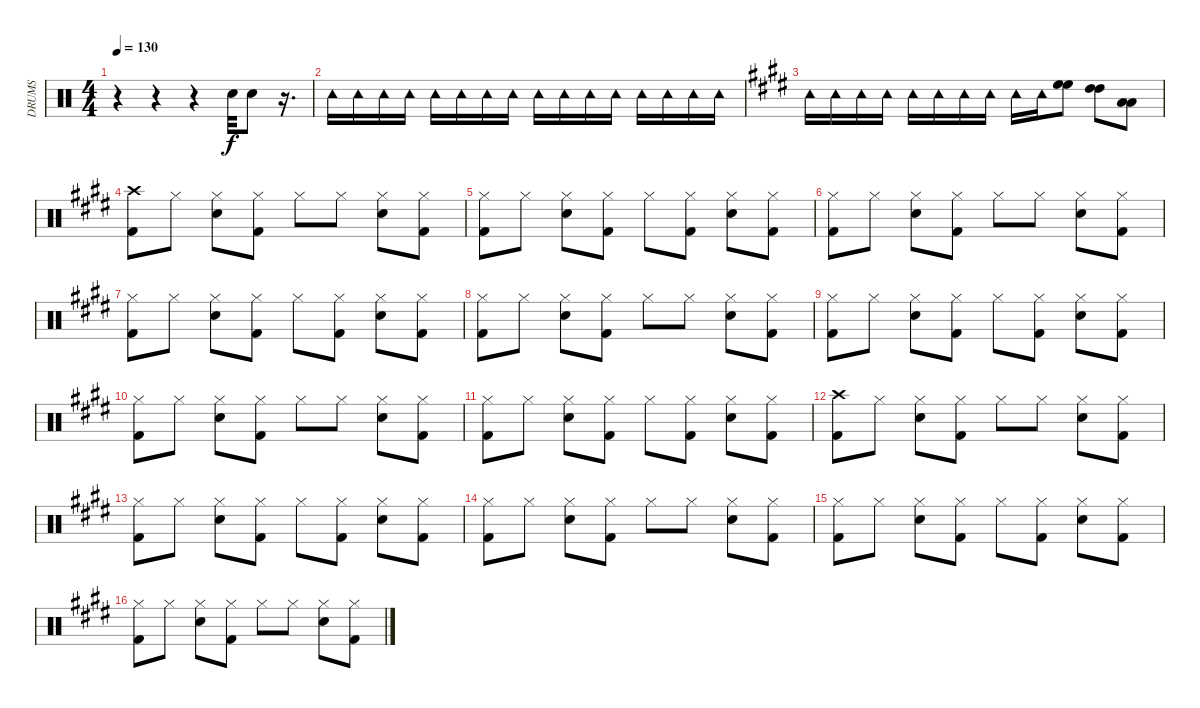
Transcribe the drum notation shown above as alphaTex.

\track ("DRUMS" "DRUMS") {instrument percussion}
\staff {score}
\articulation defaults
\ts (4 4)
\tempo 130
\clef neutral
\ks c
r.4{dy f} r.4 r.4 "Electric Snare (hit)".32 "Electric Snare (hit)".8 r.16{d} |
"Tambourine (hit)".16 "Tambourine (hit)".16 "Tambourine (hit)".16 "Tambourine (hit)".16 "Tambourine (hit)".16 "Tambourine (hit)".16 "Tambourine (hit)".16 "Tambourine (hit)".16 "Tambourine (hit)".16 "Tambourine (hit)".16 "Tambourine (hit)".16 "Tambourine (hit)".16 "Tambourine (hit)".16 "Tambourine (hit)".16 "Tambourine (hit)".16 "Tambourine (hit)".16 |
\ks c#minor "Tambourine (hit)".16 "Tambourine (hit)".16 "Tambourine (hit)".16 "Tambourine (hit)".16 "Tambourine (hit)".16 "Tambourine (hit)".16 "Tambourine (hit)".16 "Tambourine (hit)".16 "Tambourine (hit)".16 "Tambourine (hit)".16
("High Floor Tom (hit)" "High Floor Tom (hit)").8{balance 0} ("High Tom (hit)" "High Tom (hit)").8{balance 8} ("Low Floor Tom (hit)" "Low Floor Tom (hit)").8{balance 16} |
("Crash high (hit)" "Kick (hit) 2").8{balance 8} "Hi-Hat (closed)".8 ("Hi-Hat (closed)" "Snare (hit) 2").8 ("Hi-Hat (closed)" "Kick (hit) 2").8 "Hi-Hat (closed)".8 "Hi-Hat (closed)".8 ("Hi-Hat (closed)" "Snare (hit) 2").8 ("Hi-Hat (closed)" "Kick (hit) 2").8 |
("Hi-Hat (closed)" "Kick (hit) 2").8 "Hi-Hat (closed)".8 ("Hi-Hat (closed)" "Snare (hit) 2").8 ("Hi-Hat (closed)" "Kick (hit) 2").8 "Hi-Hat (closed)".8 ("Hi-Hat (closed)" "Kick (hit) 2").8 ("Hi-Hat (closed)" "Snare (hit) 2").8 ("Hi-Hat (closed)" "Kick (hit) 2").8 |
("Hi-Hat (closed)" "Kick (hit) 2").8 "Hi-Hat (closed)".8 ("Hi-Hat (closed)" "Snare (hit) 2").8 ("Hi-Hat (closed)" "Kick (hit) 2").8 "Hi-Hat (closed)".8 "Hi-Hat (closed)".8 ("Hi-Hat (closed)" "Snare (hit) 2").8 ("Hi-Hat (closed)" "Kick (hit) 2").8 |
("Hi-Hat (closed)" "Kick (hit) 2").8 "Hi-Hat (closed)".8 ("Hi-Hat (closed)" "Snare (hit) 2").8 ("Hi-Hat (closed)" "Kick (hit) 2").8 "Hi-Hat (closed)".8 ("Hi-Hat (closed)" "Kick (hit) 2").8 ("Hi-Hat (closed)" "Snare (hit) 2").8 ("Hi-Hat (closed)" "Kick (hit) 2").8 |
("Hi-Hat (closed)" "Kick (hit) 2").8 "Hi-Hat (closed)".8 ("Hi-Hat (closed)" "Snare (hit) 2").8 ("Hi-Hat (closed)" "Kick (hit) 2").8 "Hi-Hat (closed)".8 "Hi-Hat (closed)".8 ("Hi-Hat (closed)" "Snare (hit) 2").8 ("Hi-Hat (closed)" "Kick (hit) 2").8 |
("Hi-Hat (closed)" "Kick (hit) 2").8 "Hi-Hat (closed)".8 ("Hi-Hat (closed)" "Snare (hit) 2").8 ("Hi-Hat (closed)" "Kick (hit) 2").8 "Hi-Hat (closed)".8 ("Hi-Hat (closed)" "Kick (hit) 2").8 ("Hi-Hat (closed)" "Snare (hit) 2").8 ("Hi-Hat (closed)" "Kick (hit) 2").8 |
("Hi-Hat (closed)" "Kick (hit) 2").8 "Hi-Hat (closed)".8 ("Hi-Hat (closed)" "Snare (hit) 2").8 ("Hi-Hat (closed)" "Kick (hit) 2").8 "Hi-Hat (closed)".8 "Hi-Hat (closed)".8 ("Hi-Hat (closed)" "Snare (hit) 2").8 ("Hi-Hat (closed)" "Kick (hit) 2").8 |
("Hi-Hat (closed)" "Kick (hit) 2").8 "Hi-Hat (closed)".8 ("Hi-Hat (closed)" "Snare (hit) 2").8 ("Hi-Hat (closed)" "Kick (hit) 2").8 "Hi-Hat (closed)".8 ("Hi-Hat (closed)" "Kick (hit) 2").8 ("Hi-Hat (closed)" "Snare (hit) 2").8 ("Hi-Hat (closed)" "Kick (hit) 2").8 |
("Crash high (hit)" "Kick (hit) 2").8 "Hi-Hat (closed)".8 ("Hi-Hat (closed)" "Snare (hit) 2").8 ("Hi-Hat (closed)" "Kick (hit) 2").8 "Hi-Hat (closed)".8 "Hi-Hat (closed)".8 ("Hi-Hat (closed)" "Snare (hit) 2").8 ("Hi-Hat (closed)" "Kick (hit) 2").8 |
\ks e
("Hi-Hat (closed)" "Kick (hit) 2").8 "Hi-Hat (closed)".8 ("Hi-Hat (closed)" "Snare (hit) 2").8 ("Hi-Hat (closed)" "Kick (hit) 2").8 "Hi-Hat (closed)".8 ("Hi-Hat (closed)" "Kick (hit) 2").8 ("Hi-Hat (closed)" "Snare (hit) 2").8 ("Hi-Hat (closed)" "Kick (hit) 2").8 |
\ks c#minor
("Hi-Hat (closed)" "Kick (hit) 2").8 "Hi-Hat (closed)".8 ("Hi-Hat (closed)" "Snare (hit) 2").8 ("Hi-Hat (closed)" "Kick (hit) 2").8 "Hi-Hat (closed)".8 "Hi-Hat (closed)".8 ("Hi-Hat (closed)" "Snare (hit) 2").8 ("Hi-Hat (closed)" "Kick (hit) 2").8 |
("Hi-Hat (closed)" "Kick (hit) 2").8 "Hi-Hat (closed)".8 ("Hi-Hat (closed)" "Snare (hit) 2").8 ("Hi-Hat (closed)" "Kick (hit) 2").8 "Hi-Hat (closed)".8 ("Hi-Hat (closed)" "Kick (hit) 2").8 ("Hi-Hat (closed)" "Snare (hit) 2").8 ("Hi-Hat (closed)" "Kick (hit) 2").8 |
("Hi-Hat (closed)" "Kick (hit) 2").8 "Hi-Hat (closed)".8 ("Hi-Hat (closed)" "Snare (hit) 2").8 ("Hi-Hat (closed)" "Kick (hit) 2").8 "Hi-Hat (closed)".8 "Hi-Hat (closed)".8 ("Hi-Hat (closed)" "Snare (hit) 2").8 ("Hi-Hat (closed)" "Kick (hit) 2").8
